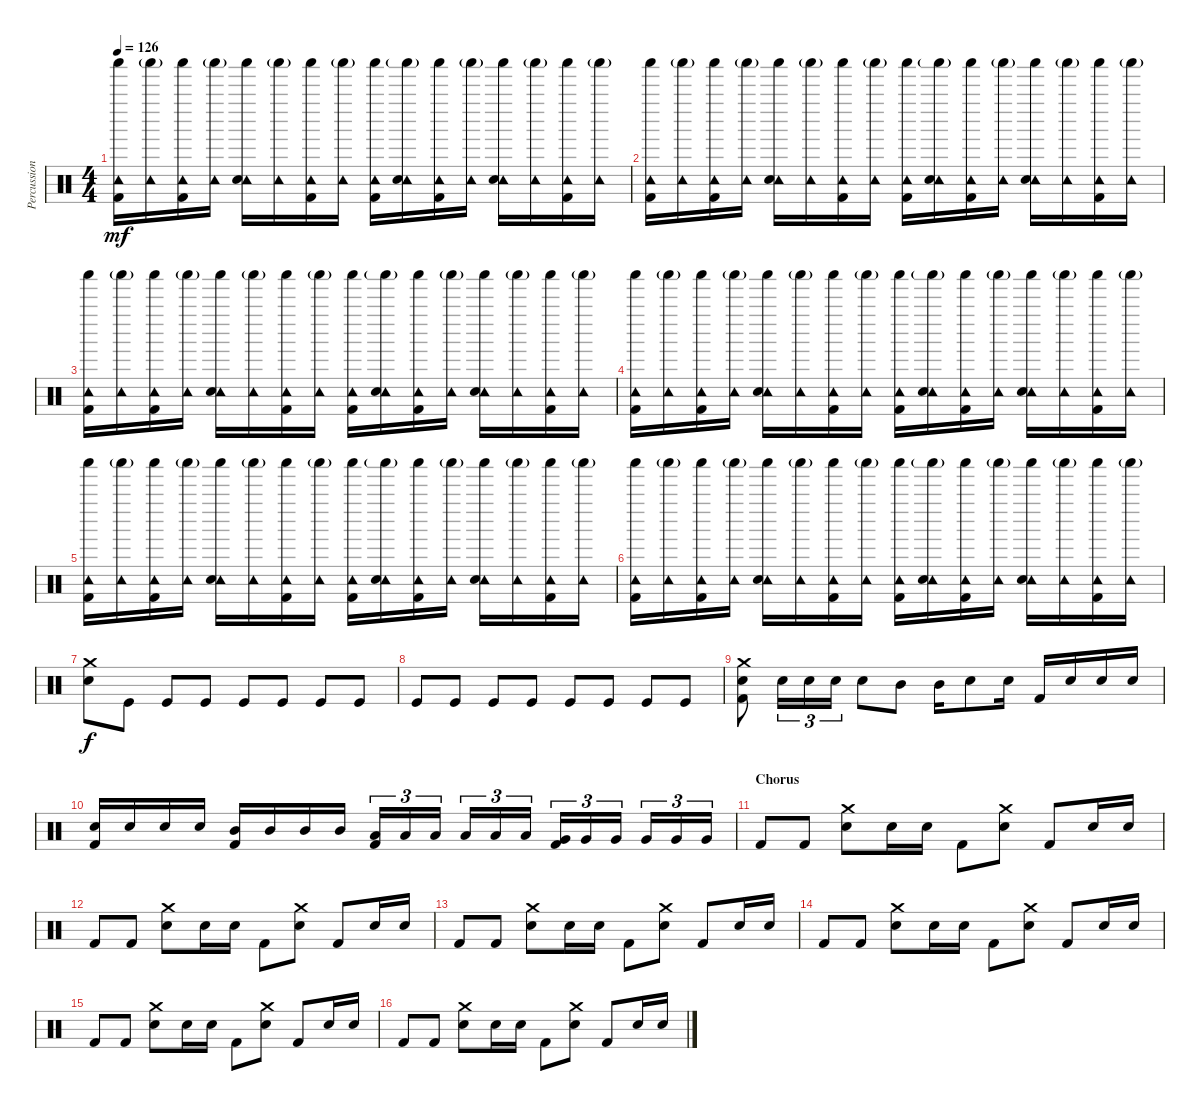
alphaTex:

\track ("Percussion" "Percussion") {instrument percussion}
\staff {score}
\articulation defaults
\ts (4 4)
\tempo 126
\clef neutral
\ks c
("Shaker (hit)" "Tambourine (hit)" "Kick (hit) 2").16{dy mf} ("Shaker (hit)"{g} "Tambourine (hit)").16 ("Shaker (hit)" "Tambourine (hit)" "Kick (hit) 2").16 ("Shaker (hit)"{g} "Tambourine (hit)").16 ("Shaker (hit)" "Tambourine (hit)" "Electric Snare (hit)").16 ("Shaker (hit)"{g} "Tambourine (hit)").16 ("Shaker (hit)" "Tambourine (hit)" "Kick (hit) 2").16 ("Shaker (hit)"{g} "Tambourine (hit)").16 ("Shaker (hit)" "Tambourine (hit)" "Kick (hit) 2").16 ("Shaker (hit)"{g} "Tambourine (hit)" "Electric Snare (hit)").16 ("Shaker (hit)" "Tambourine (hit)" "Kick (hit) 2").16 ("Shaker (hit)"{g} "Tambourine (hit)").16 ("Shaker (hit)" "Tambourine (hit)" "Electric Snare (hit)").16 ("Shaker (hit)"{g} "Tambourine (hit)").16 ("Shaker (hit)" "Tambourine (hit)" "Kick (hit) 2").16 ("Shaker (hit)"{g} "Tambourine (hit)").16 |
("Shaker (hit)" "Tambourine (hit)" "Kick (hit) 2").16 ("Shaker (hit)"{g} "Tambourine (hit)").16 ("Shaker (hit)" "Tambourine (hit)" "Kick (hit) 2").16 ("Shaker (hit)"{g} "Tambourine (hit)").16 ("Shaker (hit)" "Tambourine (hit)" "Electric Snare (hit)").16 ("Shaker (hit)"{g} "Tambourine (hit)").16 ("Shaker (hit)" "Tambourine (hit)" "Kick (hit) 2").16 ("Shaker (hit)"{g} "Tambourine (hit)").16 ("Shaker (hit)" "Tambourine (hit)" "Kick (hit) 2").16 ("Shaker (hit)"{g} "Tambourine (hit)" "Electric Snare (hit)").16 ("Shaker (hit)" "Tambourine (hit)" "Kick (hit) 2").16 ("Shaker (hit)"{g} "Tambourine (hit)").16 ("Shaker (hit)" "Tambourine (hit)" "Electric Snare (hit)").16 ("Shaker (hit)"{g} "Tambourine (hit)").16 ("Shaker (hit)" "Tambourine (hit)" "Kick (hit) 2").16 ("Shaker (hit)"{g} "Tambourine (hit)").16 |
("Shaker (hit)" "Tambourine (hit)" "Kick (hit) 2").16 ("Shaker (hit)"{g} "Tambourine (hit)").16 ("Shaker (hit)" "Tambourine (hit)" "Kick (hit) 2").16 ("Shaker (hit)"{g} "Tambourine (hit)").16 ("Shaker (hit)" "Tambourine (hit)" "Electric Snare (hit)").16 ("Shaker (hit)"{g} "Tambourine (hit)").16 ("Shaker (hit)" "Tambourine (hit)" "Kick (hit) 2").16 ("Shaker (hit)"{g} "Tambourine (hit)").16 ("Shaker (hit)" "Tambourine (hit)" "Kick (hit) 2").16 ("Shaker (hit)"{g} "Tambourine (hit)" "Electric Snare (hit)").16 ("Shaker (hit)" "Tambourine (hit)" "Kick (hit) 2").16 ("Shaker (hit)"{g} "Tambourine (hit)").16 ("Shaker (hit)" "Tambourine (hit)" "Electric Snare (hit)").16 ("Shaker (hit)"{g} "Tambourine (hit)").16 ("Shaker (hit)" "Tambourine (hit)" "Kick (hit) 2").16 ("Shaker (hit)"{g} "Tambourine (hit)").16 |
("Shaker (hit)" "Tambourine (hit)" "Kick (hit) 2").16 ("Shaker (hit)"{g} "Tambourine (hit)").16 ("Shaker (hit)" "Tambourine (hit)" "Kick (hit) 2").16 ("Shaker (hit)"{g} "Tambourine (hit)").16 ("Shaker (hit)" "Tambourine (hit)" "Electric Snare (hit)").16 ("Shaker (hit)"{g} "Tambourine (hit)").16 ("Shaker (hit)" "Tambourine (hit)" "Kick (hit) 2").16 ("Shaker (hit)"{g} "Tambourine (hit)").16 ("Shaker (hit)" "Tambourine (hit)" "Kick (hit) 2").16 ("Shaker (hit)"{g} "Tambourine (hit)" "Electric Snare (hit)").16 ("Shaker (hit)" "Tambourine (hit)" "Kick (hit) 2").16 ("Shaker (hit)"{g} "Tambourine (hit)").16 ("Shaker (hit)" "Tambourine (hit)" "Electric Snare (hit)").16 ("Shaker (hit)"{g} "Tambourine (hit)").16 ("Shaker (hit)" "Tambourine (hit)" "Kick (hit) 2").16 ("Shaker (hit)"{g} "Tambourine (hit)").16 |
("Shaker (hit)" "Tambourine (hit)" "Kick (hit) 2").16 ("Shaker (hit)"{g} "Tambourine (hit)").16 ("Shaker (hit)" "Tambourine (hit)" "Kick (hit) 2").16 ("Shaker (hit)"{g} "Tambourine (hit)").16 ("Shaker (hit)" "Tambourine (hit)" "Electric Snare (hit)").16 ("Shaker (hit)"{g} "Tambourine (hit)").16 ("Shaker (hit)" "Tambourine (hit)" "Kick (hit) 2").16 ("Shaker (hit)"{g} "Tambourine (hit)").16 ("Shaker (hit)" "Tambourine (hit)" "Kick (hit) 2").16 ("Shaker (hit)"{g} "Tambourine (hit)" "Electric Snare (hit)").16 ("Shaker (hit)" "Tambourine (hit)" "Kick (hit) 2").16 ("Shaker (hit)"{g} "Tambourine (hit)").16 ("Shaker (hit)" "Tambourine (hit)" "Electric Snare (hit)").16 ("Shaker (hit)"{g} "Tambourine (hit)").16 ("Shaker (hit)" "Tambourine (hit)" "Kick (hit) 2").16 ("Shaker (hit)"{g} "Tambourine (hit)").16 |
("Shaker (hit)" "Tambourine (hit)" "Kick (hit) 2").16 ("Shaker (hit)"{g} "Tambourine (hit)").16 ("Shaker (hit)" "Tambourine (hit)" "Kick (hit) 2").16 ("Shaker (hit)"{g} "Tambourine (hit)").16 ("Shaker (hit)" "Tambourine (hit)" "Electric Snare (hit)").16 ("Shaker (hit)"{g} "Tambourine (hit)").16 ("Shaker (hit)" "Tambourine (hit)" "Kick (hit) 2").16 ("Shaker (hit)"{g} "Tambourine (hit)").16 ("Shaker (hit)" "Tambourine (hit)" "Kick (hit) 2").16 ("Shaker (hit)"{g} "Tambourine (hit)" "Electric Snare (hit)").16 ("Shaker (hit)" "Tambourine (hit)" "Kick (hit) 2").16 ("Shaker (hit)"{g} "Tambourine (hit)").16 ("Shaker (hit)" "Tambourine (hit)" "Electric Snare (hit)").16 ("Shaker (hit)"{g} "Tambourine (hit)").16 ("Shaker (hit)" "Tambourine (hit)" "Kick (hit) 2").16 ("Shaker (hit)"{g} "Tambourine (hit)").16 |
("Crash medium (hit)" "Electric Snare (hit)").8{dy f} "Kick (hit)".8 "Kick (hit)".8 "Kick (hit)".8 "Kick (hit)".8 "Kick (hit)".8 "Kick (hit)".8 "Kick (hit)".8 |
"Kick (hit)".8 "Kick (hit)".8 "Kick (hit)".8 "Kick (hit)".8 "Kick (hit)".8 "Kick (hit)".8 "Kick (hit)".8 "Kick (hit)".8 |
("Crash medium (hit)" "Electric Snare (hit)" "Kick (hit) 2").8 "Electric Snare (hit)".16{tu (3 2)} "Electric Snare (hit)".16{tu (3 2)} "Electric Snare (hit)".16{tu (3 2)} "Electric Snare (hit)".8 "Mid Tom (hit)".8 "Mid Tom (hit)".16 "Electric Snare (hit)".8 "Electric Snare (hit)".16 "Kick (hit) 2".16 "Electric Snare (hit)".16 "Electric Snare (hit)".16 "Electric Snare (hit)".16 |
("Electric Snare (hit)" "Kick (hit) 2").16 "Electric Snare (hit)".16 "Electric Snare (hit)".16 "Electric Snare (hit)".16 ("Mid Tom (hit)" "Kick (hit) 2").16 "Mid Tom (hit)".16 "Mid Tom (hit)".16 "Mid Tom (hit)".16 ("Low Tom (hit)" "Kick (hit) 2").16{tu (3 2)} "Low Tom (hit)".16{tu (3 2)} "Low Tom (hit)".16{tu (3 2)} "Low Tom (hit)".16{tu (3 2)} "Low Tom (hit)".16{tu (3 2)} "Low Tom (hit)".16{tu (3 2)} ("Very Low Tom (hit)" "Kick (hit) 2").16{tu (3 2)} "Very Low Tom (hit)".16{tu (3 2)} "Very Low Tom (hit)".16{tu (3 2)} "Very Low Tom (hit)".16{tu (3 2)} "Very Low Tom (hit)".16{tu (3 2)} "Very Low Tom (hit)".16{tu (3 2)} |
\section ("" "Chorus")
"Kick (hit) 2".8 "Kick (hit) 2".8 ("Crash medium (hit)" "Electric Snare (hit)").8 "Electric Snare (hit)".16 "Electric Snare (hit)".16 "Kick (hit) 2".8 ("Crash medium (hit)" "Electric Snare (hit)").8 "Kick (hit) 2".8 "Electric Snare (hit)".16 "Electric Snare (hit)".16 |
"Kick (hit) 2".8 "Kick (hit) 2".8 ("Crash medium (hit)" "Electric Snare (hit)").8 "Electric Snare (hit)".16 "Electric Snare (hit)".16 "Kick (hit) 2".8 ("Crash medium (hit)" "Electric Snare (hit)").8 "Kick (hit) 2".8 "Electric Snare (hit)".16 "Electric Snare (hit)".16 |
"Kick (hit) 2".8 "Kick (hit) 2".8 ("Crash medium (hit)" "Electric Snare (hit)").8 "Electric Snare (hit)".16 "Electric Snare (hit)".16 "Kick (hit) 2".8 ("Crash medium (hit)" "Electric Snare (hit)").8 "Kick (hit) 2".8 "Electric Snare (hit)".16 "Electric Snare (hit)".16 |
"Kick (hit) 2".8 "Kick (hit) 2".8 ("Crash medium (hit)" "Electric Snare (hit)").8 "Electric Snare (hit)".16 "Electric Snare (hit)".16 "Kick (hit) 2".8 ("Crash medium (hit)" "Electric Snare (hit)").8 "Kick (hit) 2".8 "Electric Snare (hit)".16 "Electric Snare (hit)".16 |
"Kick (hit) 2".8 "Kick (hit) 2".8 ("Crash medium (hit)" "Electric Snare (hit)").8 "Electric Snare (hit)".16 "Electric Snare (hit)".16 "Kick (hit) 2".8 ("Crash medium (hit)" "Electric Snare (hit)").8 "Kick (hit) 2".8 "Electric Snare (hit)".16 "Electric Snare (hit)".16 |
"Kick (hit) 2".8 "Kick (hit) 2".8 ("Crash medium (hit)" "Electric Snare (hit)").8 "Electric Snare (hit)".16 "Electric Snare (hit)".16 "Kick (hit) 2".8 ("Crash medium (hit)" "Electric Snare (hit)").8 "Kick (hit) 2".8 "Electric Snare (hit)".16 "Electric Snare (hit)".16
